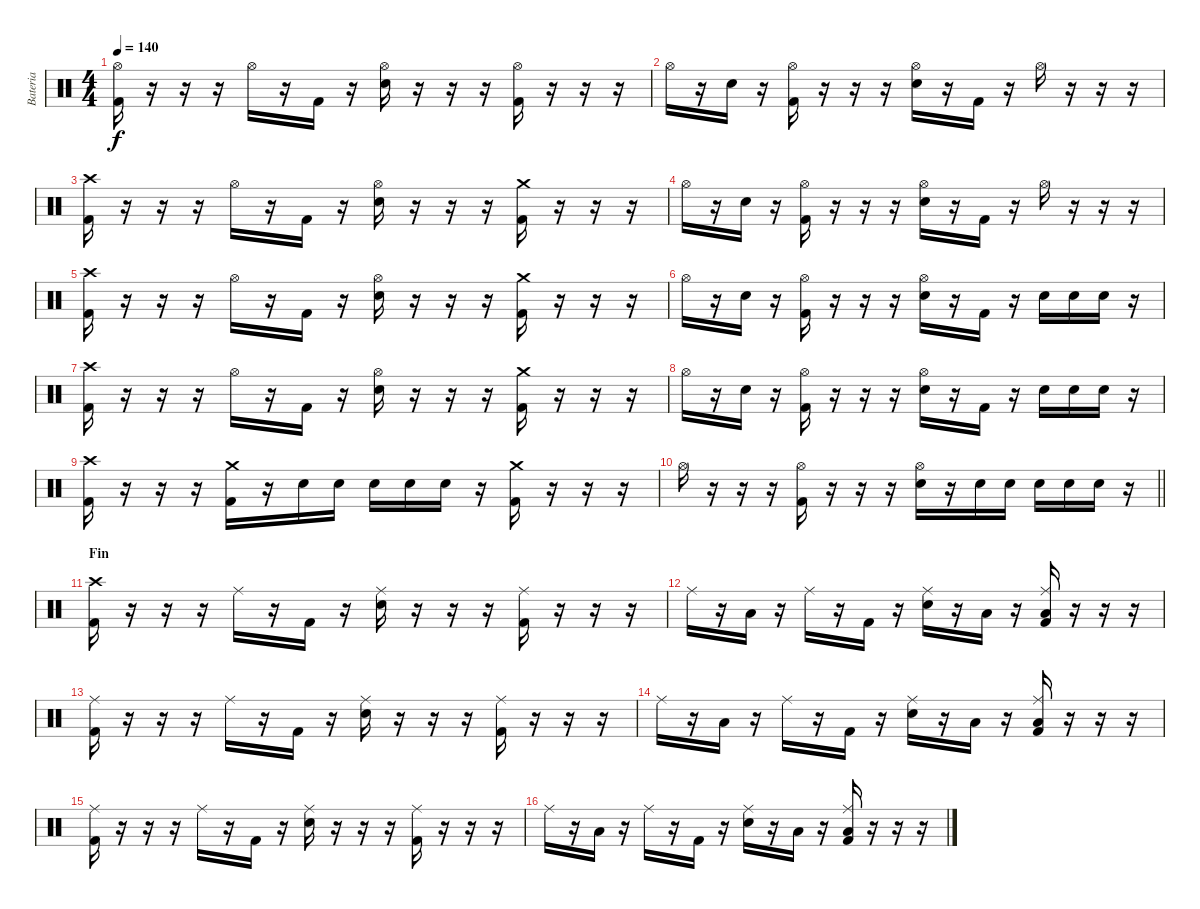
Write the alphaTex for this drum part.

\track ("Bateria" "Bateria") {instrument percussion}
\staff {score}
\articulation defaults
\ts (4 4)
\tempo 140
\clef neutral
\ks c
("Hi-Hat (open)" "Kick (hit) 2").16{dy f} r.16 r.16 r.16 "Hi-Hat (open)".16 r.16 "Kick (hit) 2".16 r.16 ("Hi-Hat (open)" "Snare (hit) 2").16 r.16 r.16 r.16 ("Hi-Hat (open)" "Kick (hit) 2").16 r.16 r.16 r.16 |
"Hi-Hat (open)".16 r.16 "Snare (hit) 2".16 r.16 ("Hi-Hat (open)" "Kick (hit) 2").16 r.16 r.16 r.16 ("Hi-Hat (open)" "Snare (hit) 2").16 r.16 "Kick (hit) 2".16 r.16 "Hi-Hat (open)".16 r.16 r.16 r.16 |
("Crash high (hit)" "Kick (hit) 2").16 r.16 r.16 r.16 "Hi-Hat (open)".16 r.16 "Kick (hit) 2".16 r.16 ("Hi-Hat (open)" "Snare (hit) 2").16 r.16 r.16 r.16 ("Crash medium (hit)" "Kick (hit) 2").16 r.16 r.16 r.16 |
"Hi-Hat (open)".16 r.16 "Snare (hit) 2".16 r.16 ("Hi-Hat (open)" "Kick (hit) 2").16 r.16 r.16 r.16 ("Hi-Hat (open)" "Snare (hit) 2").16 r.16 "Kick (hit) 2".16 r.16 "Hi-Hat (open)".16 r.16 r.16 r.16 |
("Crash high (hit)" "Kick (hit) 2").16 r.16 r.16 r.16 "Hi-Hat (open)".16 r.16 "Kick (hit) 2".16 r.16 ("Hi-Hat (open)" "Snare (hit) 2").16 r.16 r.16 r.16 ("Crash medium (hit)" "Kick (hit) 2").16 r.16 r.16 r.16 |
"Hi-Hat (open)".16 r.16 "Snare (hit) 2".16 r.16 ("Hi-Hat (open)" "Kick (hit) 2").16 r.16 r.16 r.16 ("Hi-Hat (open)" "Snare (hit) 2").16 r.16 "Kick (hit) 2".16 r.16 "Snare (hit) 2".16 "Snare (hit) 2".16 "Snare (hit) 2".16 r.16 |
("Crash high (hit)" "Kick (hit) 2").16 r.16 r.16 r.16 "Hi-Hat (open)".16 r.16 "Kick (hit) 2".16 r.16 ("Hi-Hat (open)" "Snare (hit) 2").16 r.16 r.16 r.16 ("Crash medium (hit)" "Kick (hit) 2").16 r.16 r.16 r.16 |
"Hi-Hat (open)".16 r.16 "Snare (hit) 2".16 r.16 ("Hi-Hat (open)" "Kick (hit) 2").16 r.16 r.16 r.16 ("Hi-Hat (open)" "Snare (hit) 2").16 r.16 "Kick (hit) 2".16 r.16 "Snare (hit) 2".16 "Snare (hit) 2".16 "Snare (hit) 2".16 r.16 |
("Crash high (hit)" "Kick (hit) 2").16 r.16 r.16 r.16 ("Crash medium (hit)" "Kick (hit) 2").16 r.16 "Snare (hit) 2".16 "Snare (hit) 2".16 "Snare (hit) 2".16 "Snare (hit) 2".16 "Snare (hit) 2".16 r.16 ("Crash medium (hit)" "Kick (hit) 2").16 r.16 r.16 r.16 |
\barLineRight lightlight "Hi-Hat (open)".16
r.16 r.16 r.16 ("Hi-Hat (open)" "Kick (hit) 2").16 r.16 r.16 r.16 ("Hi-Hat (open)" "Snare (hit) 2").16 r.16 "Snare (hit) 2".16 "Snare (hit) 2".16 "Snare (hit) 2".16 "Snare (hit) 2".16 "Snare (hit) 2".16 r.16 |
\section ("" "Fin")
("Crash high (hit)" "Kick (hit) 2").16 r.16 r.16 r.16 "Ride (middle)".16 r.16 "Kick (hit) 2".16 r.16 ("Ride (middle)" "Snare (hit) 2").16 r.16 r.16 r.16 ("Ride (middle)" "Kick (hit) 2").16 r.16 r.16 r.16 |
"Ride (middle)".16 r.16 "Low Tom (hit)".16 r.16 "Ride (middle)".16 r.16 "Kick (hit) 2".16 r.16 ("Ride (middle)" "Snare (hit) 2").16 r.16 "Low Tom (hit)".16 r.16 ("Ride (middle)" "Low Floor Tom (hit)" "Kick (hit) 2").16 r.16 r.16 r.16 |
("Ride (middle)" "Kick (hit) 2").16 r.16 r.16 r.16 "Ride (middle)".16 r.16 "Kick (hit) 2".16 r.16 ("Ride (middle)" "Snare (hit) 2").16 r.16 r.16 r.16 ("Ride (middle)" "Kick (hit) 2").16 r.16 r.16 r.16 |
"Ride (middle)".16 r.16 "Low Tom (hit)".16 r.16 "Ride (middle)".16 r.16 "Kick (hit) 2".16 r.16 ("Ride (middle)" "Snare (hit) 2").16 r.16 "Low Tom (hit)".16 r.16 ("Ride (middle)" "Low Floor Tom (hit)" "Kick (hit) 2").16 r.16 r.16 r.16 |
("Ride (middle)" "Kick (hit) 2").16 r.16 r.16 r.16 "Ride (middle)".16 r.16 "Kick (hit) 2".16 r.16 ("Ride (middle)" "Snare (hit) 2").16 r.16 r.16 r.16 ("Ride (middle)" "Kick (hit) 2").16 r.16 r.16 r.16 |
"Ride (middle)".16 r.16 "Low Tom (hit)".16 r.16 "Ride (middle)".16 r.16 "Kick (hit) 2".16 r.16 ("Ride (middle)" "Snare (hit) 2").16 r.16 "Low Tom (hit)".16 r.16 ("Ride (middle)" "Low Floor Tom (hit)" "Kick (hit) 2").16 r.16 r.16 r.16
